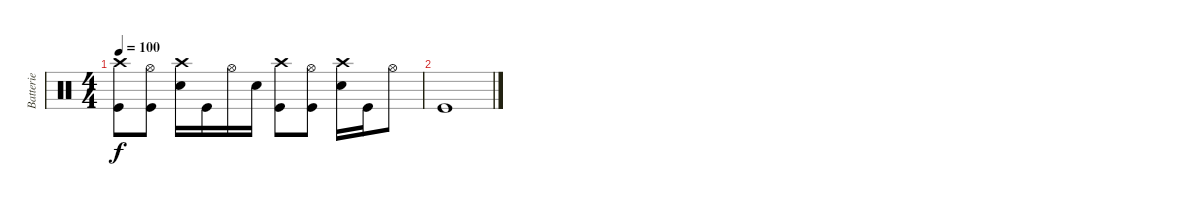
\track ("Batterie" "Batterie") {instrument percussion}
\staff {score}
\articulation defaults
\ts (4 4)
\tempo 100
\clef neutral
\ks c
("Crash high (hit)" "Kick (hit)").8{dy f} ("Hi-Hat (open)" "Kick (hit)").8 ("Crash high (hit)" "Electric Snare (hit)").16 "Kick (hit)".16 "Hi-Hat (open)".16 "Electric Snare (hit)".16 ("Crash high (hit)" "Kick (hit)").8 ("Hi-Hat (open)" "Kick (hit)").8 ("Crash high (hit)" "Electric Snare (hit)").16 "Kick (hit)".16 "Hi-Hat (open)".8 |
"Kick (hit)".1
